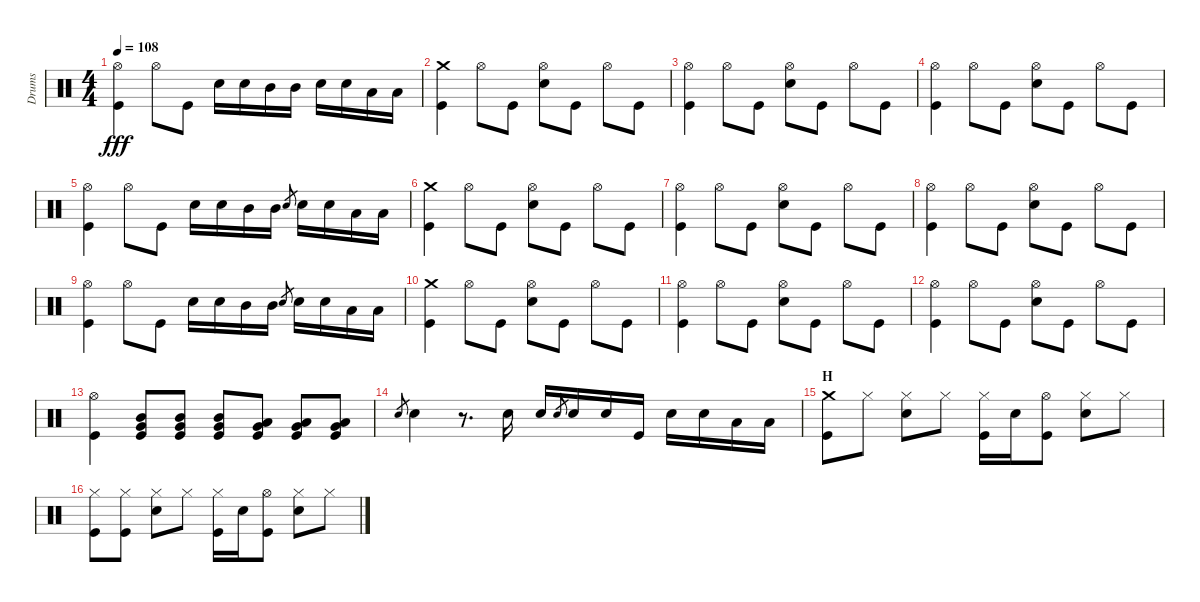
\track ("Drums" "Drums") {instrument percussion}
\staff {score}
\articulation defaults
\ts (4 4)
\tempo 108
\clef neutral
\ks c
("Hi-Hat (open)" "Kick (hit)").4{dy fff} "Hi-Hat (open)".8 "Kick (hit)".8 "Snare (hit) 2".16 "Snare (hit) 2".16 "Mid Tom (hit)".16 "Mid Tom (hit)".16 "Snare (hit) 2".16 "Snare (hit) 2".16 "Low Tom (hit)".16 "Low Tom (hit)".16 |
("Crash medium (hit)" "Kick (hit)").4 "Hi-Hat (open)".8 "Kick (hit)".8 ("Hi-Hat (open)" "Snare (hit) 2").8 "Kick (hit)".8 "Hi-Hat (open)".8 "Kick (hit)".8 |
("Hi-Hat (open)" "Kick (hit)").4 "Hi-Hat (open)".8 "Kick (hit)".8 ("Hi-Hat (open)" "Snare (hit) 2").8 "Kick (hit)".8 "Hi-Hat (open)".8 "Kick (hit)".8 |
("Hi-Hat (open)" "Kick (hit)").4 "Hi-Hat (open)".8 "Kick (hit)".8 ("Hi-Hat (open)" "Snare (hit) 2").8 "Kick (hit)".8 "Hi-Hat (open)".8 "Kick (hit)".8 |
("Hi-Hat (open)" "Kick (hit)").4 "Hi-Hat (open)".8 "Kick (hit)".8 "Snare (hit) 2".16 "Snare (hit) 2".16 "Mid Tom (hit)".16 "Mid Tom (hit)".16 "Snare (hit) 2".8{gr} "Snare (hit) 2".16 "Snare (hit) 2".16 "Low Tom (hit)".16 "Low Tom (hit)".16 |
("Crash medium (hit)" "Kick (hit)").4 "Hi-Hat (open)".8 "Kick (hit)".8 ("Hi-Hat (open)" "Snare (hit) 2").8 "Kick (hit)".8 "Hi-Hat (open)".8 "Kick (hit)".8 |
("Hi-Hat (open)" "Kick (hit)").4 "Hi-Hat (open)".8 "Kick (hit)".8 ("Hi-Hat (open)" "Snare (hit) 2").8 "Kick (hit)".8 "Hi-Hat (open)".8 "Kick (hit)".8 |
("Hi-Hat (open)" "Kick (hit)").4 "Hi-Hat (open)".8 "Kick (hit)".8 ("Hi-Hat (open)" "Snare (hit) 2").8 "Kick (hit)".8 "Hi-Hat (open)".8 "Kick (hit)".8 |
("Hi-Hat (open)" "Kick (hit)").4 "Hi-Hat (open)".8 "Kick (hit)".8 "Snare (hit) 2".16 "Snare (hit) 2".16 "Mid Tom (hit)".16 "Mid Tom (hit)".16 "Snare (hit) 2".8{gr} "Snare (hit) 2".16 "Snare (hit) 2".16 "Low Tom (hit)".16 "Low Tom (hit)".16 |
("Crash medium (hit)" "Kick (hit)").4 "Hi-Hat (open)".8 "Kick (hit)".8 ("Hi-Hat (open)" "Snare (hit) 2").8 "Kick (hit)".8 "Hi-Hat (open)".8 "Kick (hit)".8 |
("Hi-Hat (open)" "Kick (hit)").4 "Hi-Hat (open)".8 "Kick (hit)".8 ("Hi-Hat (open)" "Snare (hit) 2").8 "Kick (hit)".8 "Hi-Hat (open)".8 "Kick (hit)".8 |
("Hi-Hat (open)" "Kick (hit)").4 "Hi-Hat (open)".8 "Kick (hit)".8 ("Hi-Hat (open)" "Snare (hit) 2").8 "Kick (hit)".8 "Hi-Hat (open)".8 "Kick (hit)".8 |
("Hi-Hat (open)" "Kick (hit)").4 ("Mid Tom (hit)" "Very Low Tom (hit)" "Kick (hit)").8 ("Mid Tom (hit)" "Very Low Tom (hit)" "Kick (hit)").8 ("Mid Tom (hit)" "Very Low Tom (hit)" "Kick (hit)").8 ("Low Tom (hit)" "Very Low Tom (hit)" "Kick (hit)").8 ("Low Tom (hit)" "Very Low Tom (hit)" "Kick (hit)").8 ("Low Tom (hit)" "Very Low Tom (hit)" "Kick (hit)").8 |
"Snare (hit) 2".8{gr} "Snare (hit) 2".4 r.8{d} "Snare (hit) 2".16 "Snare (hit) 2".16 "Snare (hit) 2".8{gr} "Snare (hit) 2".16 "Snare (hit) 2".16 "Kick (hit)".16 "Snare (hit) 2".16 "Snare (hit) 2".16 "Low Tom (hit)".16 "Low Tom (hit)".16 |
\section ("" "H")
("Crash medium (hit)" "Kick (hit)").8 "Hi-Hat (closed)".8 ("Hi-Hat (closed)" "Snare (hit) 2").8 "Hi-Hat (closed)".8 ("Hi-Hat (closed)" "Kick (hit)").16 "Snare (hit) 2".16 ("Hi-Hat (open)" "Kick (hit)").8 ("Hi-Hat (closed)" "Snare (hit) 2").8 "Hi-Hat (closed)".8 |
("Hi-Hat (closed)" "Kick (hit)").8 ("Hi-Hat (closed)" "Kick (hit)").8 ("Hi-Hat (closed)" "Snare (hit) 2").8 "Hi-Hat (closed)".8 ("Hi-Hat (closed)" "Kick (hit)").16 "Snare (hit) 2".16 ("Hi-Hat (open)" "Kick (hit)").8 ("Hi-Hat (closed)" "Snare (hit) 2").8 "Hi-Hat (closed)".8
